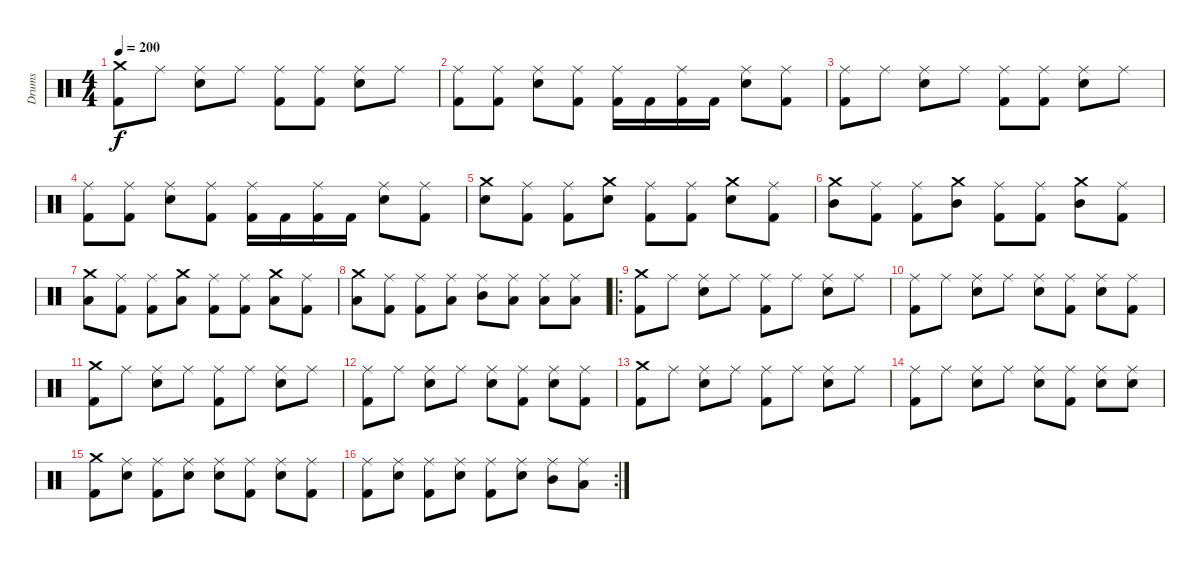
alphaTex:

\track ("Drums" "Drums") {instrument percussion}
\staff {score}
\articulation defaults
\ts (4 4)
\tempo 200
\clef neutral
\ks c
("Crash medium (hit)" "Kick (hit) 2").8{dy f} "Ride (middle)".8 ("Ride (middle)" "Snare (hit) 2").8 "Ride (middle)".8 ("Ride (middle)" "Kick (hit) 2").8 ("Ride (middle)" "Kick (hit) 2").8 ("Ride (middle)" "Snare (hit) 2").8 "Ride (middle)".8 |
("Ride (middle)" "Kick (hit) 2").8 ("Ride (middle)" "Kick (hit) 2").8 ("Ride (middle)" "Snare (hit) 2").8 ("Ride (middle)" "Kick (hit) 2").8 ("Ride (middle)" "Kick (hit) 2").16 "Kick (hit) 2".16 ("Ride (middle)" "Kick (hit) 2").16 "Kick (hit) 2".16 ("Ride (middle)" "Snare (hit) 2").8 ("Ride (middle)" "Kick (hit) 2").8 |
("Ride (middle)" "Kick (hit) 2").8 "Ride (middle)".8 ("Ride (middle)" "Snare (hit) 2").8 "Ride (middle)".8 ("Ride (middle)" "Kick (hit) 2").8 ("Ride (middle)" "Kick (hit) 2").8 ("Ride (middle)" "Snare (hit) 2").8 "Ride (middle)".8 |
("Ride (middle)" "Kick (hit) 2").8 ("Ride (middle)" "Kick (hit) 2").8 ("Ride (middle)" "Snare (hit) 2").8 ("Ride (middle)" "Kick (hit) 2").8 ("Ride (middle)" "Kick (hit) 2").16 "Kick (hit) 2".16 ("Ride (middle)" "Kick (hit) 2").16 "Kick (hit) 2".16 ("Ride (middle)" "Snare (hit) 2").8 ("Ride (middle)" "Kick (hit) 2").8 |
("Crash medium (hit)" "Snare (hit) 2").8 ("Ride (middle)" "Kick (hit) 2").8 ("Ride (middle)" "Kick (hit) 2").8 ("Crash medium (hit)" "Snare (hit) 2").8 ("Ride (middle)" "Kick (hit) 2").8 ("Ride (middle)" "Kick (hit) 2").8 ("Crash medium (hit)" "Snare (hit) 2").8 ("Ride (middle)" "Kick (hit) 2").8 |
("Crash medium (hit)" "Mid Tom (hit)").8 ("Ride (middle)" "Kick (hit) 2").8 ("Ride (middle)" "Kick (hit) 2").8 ("Crash medium (hit)" "Mid Tom (hit)").8 ("Ride (middle)" "Kick (hit) 2").8 ("Ride (middle)" "Kick (hit) 2").8 ("Crash medium (hit)" "Mid Tom (hit)").8 ("Ride (middle)" "Kick (hit) 2").8 |
("Crash medium (hit)" "Low Tom (hit)").8 ("Ride (middle)" "Kick (hit) 2").8 ("Ride (middle)" "Kick (hit) 2").8 ("Crash medium (hit)" "Low Tom (hit)").8 ("Ride (middle)" "Kick (hit) 2").8 ("Ride (middle)" "Kick (hit) 2").8 ("Crash medium (hit)" "Low Tom (hit)").8 ("Ride (middle)" "Kick (hit) 2").8 |
("Crash medium (hit)" "Low Floor Tom (hit)").8 ("Ride (middle)" "Kick (hit) 2").8 ("Ride (middle)" "Kick (hit) 2").8 ("Ride (middle)" "Low Floor Tom (hit)").8 ("Ride (middle)" "Mid Tom (hit)").8 ("Ride (middle)" "Low Tom (hit)").8 ("Ride (middle)" "Low Floor Tom (hit)").8 ("Ride (middle)" "Low Tom (hit)").8 |
\ro
("Crash medium (hit)" "Kick (hit) 2").8 "Ride (middle)".8 ("Ride (middle)" "Snare (hit) 2").8 "Ride (middle)".8 ("Ride (middle)" "Kick (hit) 2").8 "Ride (middle)".8 ("Ride (middle)" "Snare (hit) 2").8 "Ride (middle)".8 |
("Ride (middle)" "Kick (hit) 2").8 "Ride (middle)".8 ("Ride (middle)" "Snare (hit) 2").8 "Ride (middle)".8 ("Ride (middle)" "Snare (hit) 2").8 ("Ride (middle)" "Kick (hit) 2").8 ("Ride (middle)" "Snare (hit) 2").8 ("Ride (middle)" "Kick (hit) 2").8 |
("Crash medium (hit)" "Kick (hit) 2").8 "Ride (middle)".8 ("Ride (middle)" "Snare (hit) 2").8 "Ride (middle)".8 ("Ride (middle)" "Kick (hit) 2").8 "Ride (middle)".8 ("Ride (middle)" "Snare (hit) 2").8 "Ride (middle)".8 |
("Ride (middle)" "Kick (hit) 2").8 "Ride (middle)".8 ("Ride (middle)" "Snare (hit) 2").8 "Ride (middle)".8 ("Ride (middle)" "Snare (hit) 2").8 ("Ride (middle)" "Kick (hit) 2").8 ("Ride (middle)" "Snare (hit) 2").8 ("Ride (middle)" "Kick (hit) 2").8 |
("Crash medium (hit)" "Kick (hit) 2").8 "Ride (middle)".8 ("Ride (middle)" "Snare (hit) 2").8 "Ride (middle)".8 ("Ride (middle)" "Kick (hit) 2").8 "Ride (middle)".8 ("Ride (middle)" "Snare (hit) 2").8 "Ride (middle)".8 |
("Ride (middle)" "Kick (hit) 2").8 "Ride (middle)".8 ("Ride (middle)" "Snare (hit) 2").8 "Ride (middle)".8 ("Ride (middle)" "Snare (hit) 2").8 ("Ride (middle)" "Kick (hit) 2").8 ("Ride (middle)" "Snare (hit) 2").8 ("Ride (middle)" "Snare (hit) 2").8 |
("Crash medium (hit)" "Kick (hit) 2").8 ("Ride (middle)" "Snare (hit) 2").8 ("Ride (middle)" "Kick (hit) 2").8 ("Ride (middle)" "Snare (hit) 2").8 ("Ride (middle)" "Snare (hit) 2").8 ("Ride (middle)" "Kick (hit) 2").8 ("Ride (middle)" "Snare (hit) 2").8 ("Ride (middle)" "Kick (hit) 2").8 |
\rc 2
("Ride (middle)" "Kick (hit) 2").8 ("Ride (middle)" "Snare (hit) 2").8 ("Ride (middle)" "Kick (hit) 2").8 ("Ride (middle)" "Snare (hit) 2").8 ("Ride (middle)" "Kick (hit) 2").8 ("Ride (middle)" "Snare (hit) 2").8 ("Ride (middle)" "Mid Tom (hit)").8 ("Ride (middle)" "Low Tom (hit)").8
